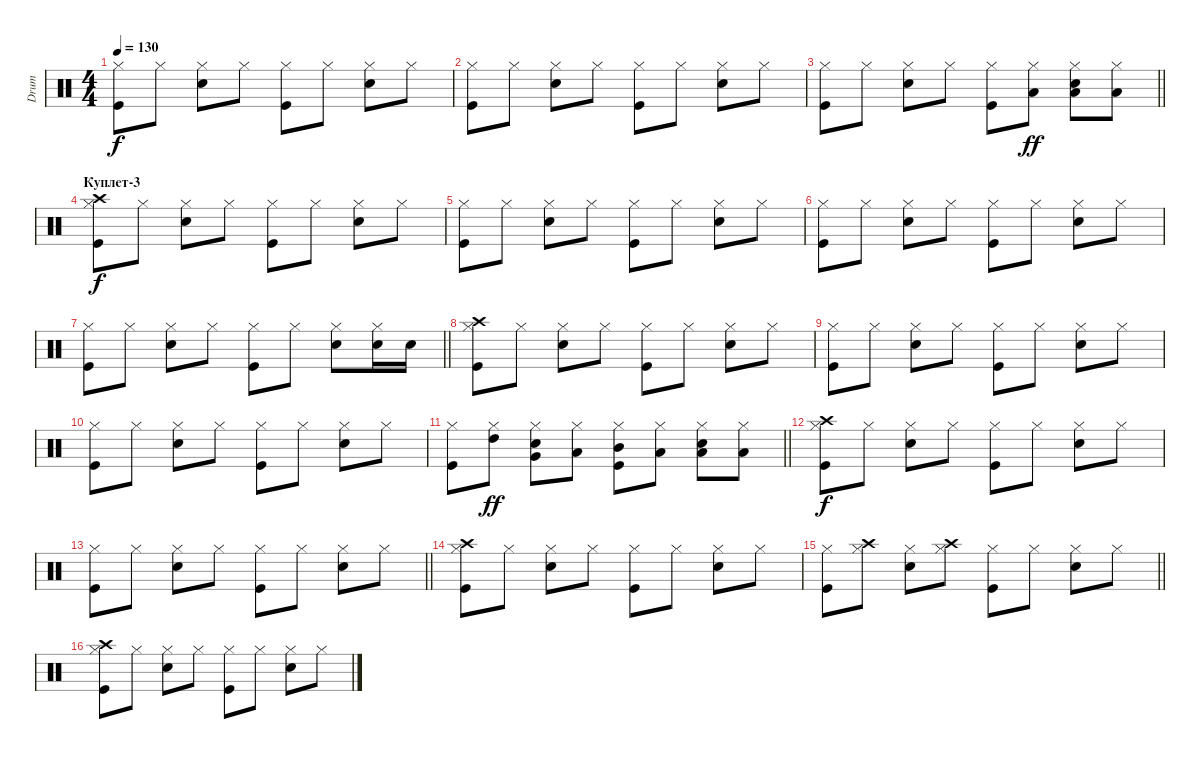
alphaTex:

\track ("Drum" "Drum") {instrument percussion}
\staff {score}
\articulation defaults
\ts (4 4)
\tempo 130
\clef neutral
\ks c
("Kick (hit)" "Hi-Hat (closed)").8{dy f} "Hi-Hat (closed)".8 ("Snare (hit) 2" "Hi-Hat (closed)").8 "Hi-Hat (closed)".8 ("Kick (hit)" "Hi-Hat (closed)").8 "Hi-Hat (closed)".8 ("Snare (hit) 2" "Hi-Hat (closed)").8 "Hi-Hat (closed)".8 |
("Kick (hit)" "Hi-Hat (closed)").8 "Hi-Hat (closed)".8 ("Snare (hit) 2" "Hi-Hat (closed)").8 "Hi-Hat (closed)".8 ("Kick (hit)" "Hi-Hat (closed)").8 "Hi-Hat (closed)".8 ("Snare (hit) 2" "Hi-Hat (closed)").8 "Hi-Hat (closed)".8 |
\barLineRight lightlight
("Kick (hit)" "Hi-Hat (closed)").8 "Hi-Hat (closed)".8 ("Snare (hit) 2" "Hi-Hat (closed)").8 "Hi-Hat (closed)".8 ("Kick (hit)" "Hi-Hat (closed)").8 ("Hi-Hat (closed)" "Low Tom (hit)").8{dy ff} ("Snare (hit) 2" "Hi-Hat (closed)" "Low Tom (hit)").8 ("Hi-Hat (closed)" "Low Tom (hit)").8 |
\section ("" "Куплет-3")
("Kick (hit)" "Hi-Hat (closed)" "Crash high (hit)").8{dy f} "Hi-Hat (closed)".8 ("Snare (hit) 2" "Hi-Hat (closed)").8 "Hi-Hat (closed)".8 ("Kick (hit)" "Hi-Hat (closed)").8 "Hi-Hat (closed)".8 ("Snare (hit) 2" "Hi-Hat (closed)").8 "Hi-Hat (closed)".8 |
("Kick (hit)" "Hi-Hat (closed)").8 "Hi-Hat (closed)".8 ("Snare (hit) 2" "Hi-Hat (closed)").8 "Hi-Hat (closed)".8 ("Kick (hit)" "Hi-Hat (closed)").8 "Hi-Hat (closed)".8 ("Snare (hit) 2" "Hi-Hat (closed)").8 "Hi-Hat (closed)".8 |
("Kick (hit)" "Hi-Hat (closed)").8 "Hi-Hat (closed)".8 ("Snare (hit) 2" "Hi-Hat (closed)").8 "Hi-Hat (closed)".8 ("Kick (hit)" "Hi-Hat (closed)").8 "Hi-Hat (closed)".8 ("Snare (hit) 2" "Hi-Hat (closed)").8 "Hi-Hat (closed)".8 |
\barLineRight lightlight
("Kick (hit)" "Hi-Hat (closed)").8 "Hi-Hat (closed)".8 ("Snare (hit) 2" "Hi-Hat (closed)").8 "Hi-Hat (closed)".8 ("Kick (hit)" "Hi-Hat (closed)").8 "Hi-Hat (closed)".8 ("Snare (hit) 2" "Hi-Hat (closed)").8 ("Hi-Hat (closed)" "Snare (hit) 2").16 "Snare (hit) 2".16 |
("Kick (hit)" "Hi-Hat (closed)" "Crash high (hit)").8 "Hi-Hat (closed)".8 ("Snare (hit) 2" "Hi-Hat (closed)").8 "Hi-Hat (closed)".8 ("Kick (hit)" "Hi-Hat (closed)").8 "Hi-Hat (closed)".8 ("Snare (hit) 2" "Hi-Hat (closed)").8 "Hi-Hat (closed)".8 |
("Kick (hit)" "Hi-Hat (closed)").8 "Hi-Hat (closed)".8 ("Snare (hit) 2" "Hi-Hat (closed)").8 "Hi-Hat (closed)".8 ("Kick (hit)" "Hi-Hat (closed)").8 "Hi-Hat (closed)".8 ("Snare (hit) 2" "Hi-Hat (closed)").8 "Hi-Hat (closed)".8 |
("Kick (hit)" "Hi-Hat (closed)").8 "Hi-Hat (closed)".8 ("Snare (hit) 2" "Hi-Hat (closed)").8 "Hi-Hat (closed)".8 ("Kick (hit)" "Hi-Hat (closed)").8 "Hi-Hat (closed)".8 ("Snare (hit) 2" "Hi-Hat (closed)").8 "Hi-Hat (closed)".8 |
\barLineRight lightlight
("Kick (hit)" "Hi-Hat (closed)").8 ("Hi-Hat (closed)" "High Tom (hit)").8{dy ff} ("Snare (hit) 2" "Hi-Hat (closed)" "Very Low Tom (hit)").8 ("Hi-Hat (closed)" "Low Tom (hit)").8 ("Kick (hit)" "Hi-Hat (closed)" "Mid Tom (hit)").8 ("Hi-Hat (closed)" "Low Tom (hit)").8 ("Snare (hit) 2" "Hi-Hat (closed)" "Low Tom (hit)").8 ("Hi-Hat (closed)" "Low Tom (hit)").8 |
("Kick (hit)" "Hi-Hat (closed)" "Crash high (hit)").8{dy f} "Hi-Hat (closed)".8 ("Snare (hit) 2" "Hi-Hat (closed)").8 "Hi-Hat (closed)".8 ("Kick (hit)" "Hi-Hat (closed)").8 "Hi-Hat (closed)".8 ("Snare (hit) 2" "Hi-Hat (closed)").8 "Hi-Hat (closed)".8 |
\barLineRight lightlight
("Kick (hit)" "Hi-Hat (closed)").8 "Hi-Hat (closed)".8 ("Snare (hit) 2" "Hi-Hat (closed)").8 "Hi-Hat (closed)".8 ("Kick (hit)" "Hi-Hat (closed)").8 "Hi-Hat (closed)".8 ("Snare (hit) 2" "Hi-Hat (closed)").8 "Hi-Hat (closed)".8 |
("Kick (hit)" "Hi-Hat (closed)" "Crash high (hit)").8 "Hi-Hat (closed)".8 ("Snare (hit) 2" "Hi-Hat (closed)").8 "Hi-Hat (closed)".8 ("Kick (hit)" "Hi-Hat (closed)").8 "Hi-Hat (closed)".8 ("Snare (hit) 2" "Hi-Hat (closed)").8 "Hi-Hat (closed)".8 |
\barLineRight lightlight
("Kick (hit)" "Hi-Hat (closed)").8 ("Hi-Hat (closed)" "Crash high (hit)").8 ("Snare (hit) 2" "Hi-Hat (closed)").8 ("Hi-Hat (closed)" "Crash high (hit)").8 ("Kick (hit)" "Hi-Hat (closed)").8 "Hi-Hat (closed)".8 ("Snare (hit) 2" "Hi-Hat (closed)").8 "Hi-Hat (closed)".8 |
\section ("" "")
("Kick (hit)" "Hi-Hat (closed)" "Crash high (hit)").8 "Hi-Hat (closed)".8 ("Snare (hit) 2" "Hi-Hat (closed)").8 "Hi-Hat (closed)".8 ("Kick (hit)" "Hi-Hat (closed)").8 "Hi-Hat (closed)".8 ("Snare (hit) 2" "Hi-Hat (closed)").8 "Hi-Hat (closed)".8
